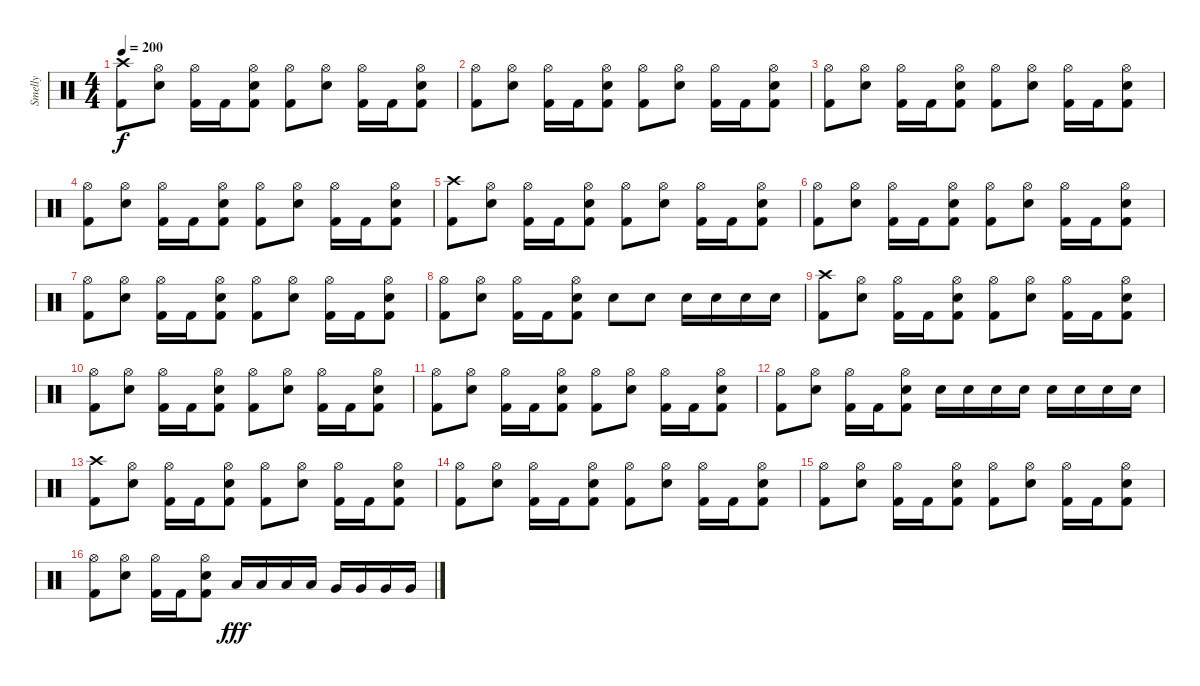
\track ("Smelly" "Smelly") {instrument percussion}
\staff {score}
\articulation defaults
\ts (4 4)
\tempo 200
\clef neutral
\ks c
("Crash high (hit)" "Kick (hit) 2").8{dy f} ("Hi-Hat (open)" "Electric Snare (hit)").8 ("Hi-Hat (open)" "Kick (hit) 2").16 "Kick (hit) 2".16 ("Hi-Hat (open)" "Electric Snare (hit)" "Kick (hit) 2").8 ("Hi-Hat (open)" "Kick (hit) 2").8 ("Hi-Hat (open)" "Electric Snare (hit)").8 ("Hi-Hat (open)" "Kick (hit) 2").16 "Kick (hit) 2".16 ("Hi-Hat (open)" "Electric Snare (hit)" "Kick (hit) 2").8 |
("Hi-Hat (open)" "Kick (hit) 2").8 ("Hi-Hat (open)" "Electric Snare (hit)").8 ("Hi-Hat (open)" "Kick (hit) 2").16 "Kick (hit) 2".16 ("Hi-Hat (open)" "Electric Snare (hit)" "Kick (hit) 2").8 ("Hi-Hat (open)" "Kick (hit) 2").8 ("Hi-Hat (open)" "Electric Snare (hit)").8 ("Hi-Hat (open)" "Kick (hit) 2").16 "Kick (hit) 2".16 ("Hi-Hat (open)" "Electric Snare (hit)" "Kick (hit) 2").8 |
("Hi-Hat (open)" "Kick (hit) 2").8 ("Hi-Hat (open)" "Electric Snare (hit)").8 ("Hi-Hat (open)" "Kick (hit) 2").16 "Kick (hit) 2".16 ("Hi-Hat (open)" "Electric Snare (hit)" "Kick (hit) 2").8 ("Hi-Hat (open)" "Kick (hit) 2").8 ("Hi-Hat (open)" "Electric Snare (hit)").8 ("Hi-Hat (open)" "Kick (hit) 2").16 "Kick (hit) 2".16 ("Hi-Hat (open)" "Electric Snare (hit)" "Kick (hit) 2").8 |
("Hi-Hat (open)" "Kick (hit) 2").8 ("Hi-Hat (open)" "Electric Snare (hit)").8 ("Hi-Hat (open)" "Kick (hit) 2").16 "Kick (hit) 2".16 ("Hi-Hat (open)" "Electric Snare (hit)" "Kick (hit) 2").8 ("Hi-Hat (open)" "Kick (hit) 2").8 ("Hi-Hat (open)" "Electric Snare (hit)").8 ("Hi-Hat (open)" "Kick (hit) 2").16 "Kick (hit) 2".16 ("Hi-Hat (open)" "Electric Snare (hit)" "Kick (hit) 2").8 |
("Crash high (hit)" "Kick (hit) 2").8 ("Hi-Hat (open)" "Electric Snare (hit)").8 ("Hi-Hat (open)" "Kick (hit) 2").16 "Kick (hit) 2".16 ("Hi-Hat (open)" "Electric Snare (hit)" "Kick (hit) 2").8 ("Hi-Hat (open)" "Kick (hit) 2").8 ("Hi-Hat (open)" "Electric Snare (hit)").8 ("Hi-Hat (open)" "Kick (hit) 2").16 "Kick (hit) 2".16 ("Hi-Hat (open)" "Electric Snare (hit)" "Kick (hit) 2").8 |
("Hi-Hat (open)" "Kick (hit) 2").8 ("Hi-Hat (open)" "Electric Snare (hit)").8 ("Hi-Hat (open)" "Kick (hit) 2").16 "Kick (hit) 2".16 ("Hi-Hat (open)" "Electric Snare (hit)" "Kick (hit) 2").8 ("Hi-Hat (open)" "Kick (hit) 2").8 ("Hi-Hat (open)" "Electric Snare (hit)").8 ("Hi-Hat (open)" "Kick (hit) 2").16 "Kick (hit) 2".16 ("Hi-Hat (open)" "Electric Snare (hit)" "Kick (hit) 2").8 |
("Hi-Hat (open)" "Kick (hit) 2").8 ("Hi-Hat (open)" "Electric Snare (hit)").8 ("Hi-Hat (open)" "Kick (hit) 2").16 "Kick (hit) 2".16 ("Hi-Hat (open)" "Electric Snare (hit)" "Kick (hit) 2").8 ("Hi-Hat (open)" "Kick (hit) 2").8 ("Hi-Hat (open)" "Electric Snare (hit)").8 ("Hi-Hat (open)" "Kick (hit) 2").16 "Kick (hit) 2".16 ("Hi-Hat (open)" "Electric Snare (hit)" "Kick (hit) 2").8 |
("Hi-Hat (open)" "Kick (hit) 2").8 ("Hi-Hat (open)" "Electric Snare (hit)").8 ("Hi-Hat (open)" "Kick (hit) 2").16 "Kick (hit) 2".16 ("Hi-Hat (open)" "Electric Snare (hit)" "Kick (hit) 2").8 "Electric Snare (hit)".8 "Electric Snare (hit)".8 "Electric Snare (hit)".16 "Electric Snare (hit)".16 "Electric Snare (hit)".16 "Electric Snare (hit)".16 |
("Crash high (hit)" "Kick (hit) 2").8 ("Hi-Hat (open)" "Electric Snare (hit)").8 ("Hi-Hat (open)" "Kick (hit) 2").16 "Kick (hit) 2".16 ("Hi-Hat (open)" "Electric Snare (hit)" "Kick (hit) 2").8 ("Hi-Hat (open)" "Kick (hit) 2").8 ("Hi-Hat (open)" "Electric Snare (hit)").8 ("Hi-Hat (open)" "Kick (hit) 2").16 "Kick (hit) 2".16 ("Hi-Hat (open)" "Electric Snare (hit)" "Kick (hit) 2").8 |
("Hi-Hat (open)" "Kick (hit) 2").8 ("Hi-Hat (open)" "Electric Snare (hit)").8 ("Hi-Hat (open)" "Kick (hit) 2").16 "Kick (hit) 2".16 ("Hi-Hat (open)" "Electric Snare (hit)" "Kick (hit) 2").8 ("Hi-Hat (open)" "Kick (hit) 2").8 ("Hi-Hat (open)" "Electric Snare (hit)").8 ("Hi-Hat (open)" "Kick (hit) 2").16 "Kick (hit) 2".16 ("Hi-Hat (open)" "Electric Snare (hit)" "Kick (hit) 2").8 |
("Hi-Hat (open)" "Kick (hit) 2").8 ("Hi-Hat (open)" "Electric Snare (hit)").8 ("Hi-Hat (open)" "Kick (hit) 2").16 "Kick (hit) 2".16 ("Hi-Hat (open)" "Electric Snare (hit)" "Kick (hit) 2").8 ("Hi-Hat (open)" "Kick (hit) 2").8 ("Hi-Hat (open)" "Electric Snare (hit)").8 ("Hi-Hat (open)" "Kick (hit) 2").16 "Kick (hit) 2".16 ("Hi-Hat (open)" "Electric Snare (hit)" "Kick (hit) 2").8 |
("Hi-Hat (open)" "Kick (hit) 2").8 ("Hi-Hat (open)" "Electric Snare (hit)").8 ("Hi-Hat (open)" "Kick (hit) 2").16 "Kick (hit) 2".16 ("Hi-Hat (open)" "Electric Snare (hit)" "Kick (hit) 2").8 "Electric Snare (hit)".16 "Electric Snare (hit)".16 "Electric Snare (hit)".16 "Electric Snare (hit)".16 "Electric Snare (hit)".16 "Electric Snare (hit)".16 "Electric Snare (hit)".16 "Electric Snare (hit)".16 |
("Crash high (hit)" "Kick (hit) 2").8 ("Hi-Hat (open)" "Electric Snare (hit)").8 ("Hi-Hat (open)" "Kick (hit) 2").16 "Kick (hit) 2".16 ("Hi-Hat (open)" "Electric Snare (hit)" "Kick (hit) 2").8 ("Hi-Hat (open)" "Kick (hit) 2").8 ("Hi-Hat (open)" "Electric Snare (hit)").8 ("Hi-Hat (open)" "Kick (hit) 2").16 "Kick (hit) 2".16 ("Hi-Hat (open)" "Electric Snare (hit)" "Kick (hit) 2").8 |
("Hi-Hat (open)" "Kick (hit) 2").8 ("Hi-Hat (open)" "Electric Snare (hit)").8 ("Hi-Hat (open)" "Kick (hit) 2").16 "Kick (hit) 2".16 ("Hi-Hat (open)" "Electric Snare (hit)" "Kick (hit) 2").8 ("Hi-Hat (open)" "Kick (hit) 2").8 ("Hi-Hat (open)" "Electric Snare (hit)").8 ("Hi-Hat (open)" "Kick (hit) 2").16 "Kick (hit) 2".16 ("Hi-Hat (open)" "Electric Snare (hit)" "Kick (hit) 2").8 |
("Hi-Hat (open)" "Kick (hit) 2").8 ("Hi-Hat (open)" "Electric Snare (hit)").8 ("Hi-Hat (open)" "Kick (hit) 2").16 "Kick (hit) 2".16 ("Hi-Hat (open)" "Electric Snare (hit)" "Kick (hit) 2").8 ("Hi-Hat (open)" "Kick (hit) 2").8 ("Hi-Hat (open)" "Electric Snare (hit)").8 ("Hi-Hat (open)" "Kick (hit) 2").16 "Kick (hit) 2".16 ("Hi-Hat (open)" "Electric Snare (hit)" "Kick (hit) 2").8 |
("Hi-Hat (open)" "Kick (hit) 2").8 ("Hi-Hat (open)" "Electric Snare (hit)").8 ("Hi-Hat (open)" "Kick (hit) 2").16 "Kick (hit) 2".16 ("Hi-Hat (open)" "Electric Snare (hit)" "Kick (hit) 2").8 "Low Tom (hit)".16{dy fff} "Low Tom (hit)".16 "Low Tom (hit)".16 "Low Tom (hit)".16 "Very Low Tom (hit)".16 "Very Low Tom (hit)".16 "Very Low Tom (hit)".16 "Very Low Tom (hit)".16
